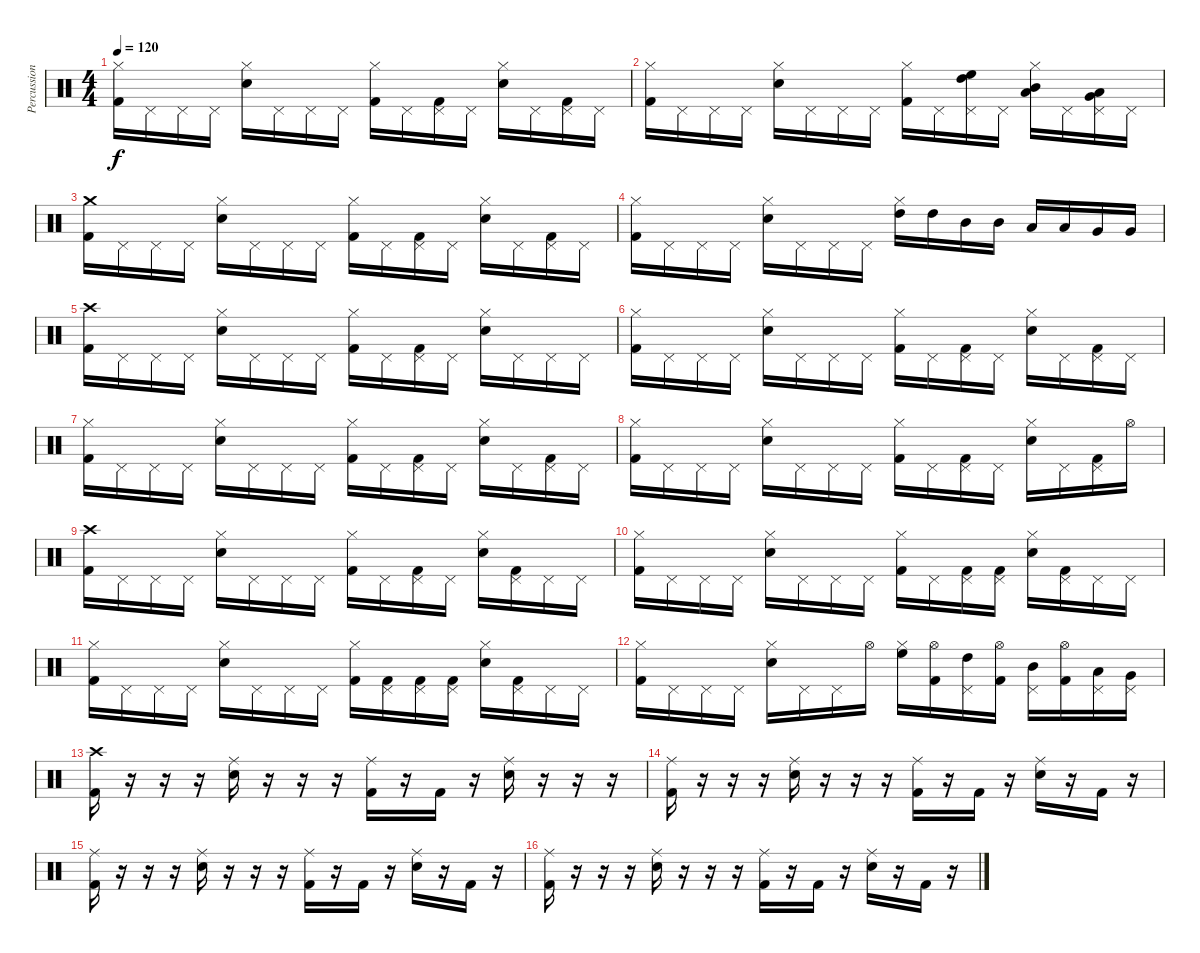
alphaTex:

\track ("Percussion" "Percussion") {instrument percussion}
\staff {score}
\articulation defaults
\ts (4 4)
\tempo 120
\clef neutral
\ks c
("Hi-Hat (closed)" "Kick (hit) 2").16{dy f} "Pedal Hi-Hat (hit)".16 "Pedal Hi-Hat (hit)".16 "Pedal Hi-Hat (hit)".16 ("Hi-Hat (closed)" "Electric Snare (hit)").16 "Pedal Hi-Hat (hit)".16 "Pedal Hi-Hat (hit)".16 "Pedal Hi-Hat (hit)".16 ("Hi-Hat (closed)" "Kick (hit) 2").16 "Pedal Hi-Hat (hit)".16 ("Pedal Hi-Hat (hit)" "Kick (hit) 2").16 "Pedal Hi-Hat (hit)".16 ("Hi-Hat (closed)" "Electric Snare (hit)").16 "Pedal Hi-Hat (hit)".16 ("Pedal Hi-Hat (hit)" "Kick (hit) 2").16 "Pedal Hi-Hat (hit)".16 |
("Hi-Hat (closed)" "Kick (hit) 2").16 "Pedal Hi-Hat (hit)".16 "Pedal Hi-Hat (hit)".16 "Pedal Hi-Hat (hit)".16 ("Hi-Hat (closed)" "Electric Snare (hit)").16 "Pedal Hi-Hat (hit)".16 "Pedal Hi-Hat (hit)".16 "Pedal Hi-Hat (hit)".16 ("Hi-Hat (closed)" "Kick (hit) 2").16 "Pedal Hi-Hat (hit)".16 ("Pedal Hi-Hat (hit)" "High Floor Tom (hit)" "High Tom (hit)").16 "Pedal Hi-Hat (hit)".16 ("Hi-Hat (closed)" "Mid Tom (hit)" "Low Tom (hit)").16 "Pedal Hi-Hat (hit)".16 ("Pedal Hi-Hat (hit)" "Very Low Tom (hit)" "Low Floor Tom (hit)").16 "Pedal Hi-Hat (hit)".16 |
("Crash medium (hit)" "Kick (hit) 2").16 "Pedal Hi-Hat (hit)".16 "Pedal Hi-Hat (hit)".16 "Pedal Hi-Hat (hit)".16 ("Hi-Hat (closed)" "Electric Snare (hit)").16 "Pedal Hi-Hat (hit)".16 "Pedal Hi-Hat (hit)".16 "Pedal Hi-Hat (hit)".16 ("Hi-Hat (closed)" "Kick (hit) 2").16 "Pedal Hi-Hat (hit)".16 ("Pedal Hi-Hat (hit)" "Kick (hit) 2").16 "Pedal Hi-Hat (hit)".16 ("Hi-Hat (closed)" "Electric Snare (hit)").16 "Pedal Hi-Hat (hit)".16 ("Pedal Hi-Hat (hit)" "Kick (hit) 2").16 "Pedal Hi-Hat (hit)".16 |
("Hi-Hat (closed)" "Kick (hit) 2").16 "Pedal Hi-Hat (hit)".16 "Pedal Hi-Hat (hit)".16 "Pedal Hi-Hat (hit)".16 ("Hi-Hat (closed)" "Electric Snare (hit)").16 "Pedal Hi-Hat (hit)".16 "Pedal Hi-Hat (hit)".16 "Pedal Hi-Hat (hit)".16 ("Hi-Hat (closed)" "High Tom (hit)").16 "High Tom (hit)".16 "Mid Tom (hit)".16 "Mid Tom (hit)".16 "Low Tom (hit)".16 "Low Tom (hit)".16 "Very Low Tom (hit)".16 "Very Low Tom (hit)".16 |
("Crash high (hit)" "Kick (hit) 2").16 "Pedal Hi-Hat (hit)".16 "Pedal Hi-Hat (hit)".16 "Pedal Hi-Hat (hit)".16 ("Hi-Hat (closed)" "Electric Snare (hit)").16 "Pedal Hi-Hat (hit)".16 "Pedal Hi-Hat (hit)".16 "Pedal Hi-Hat (hit)".16 ("Hi-Hat (closed)" "Kick (hit) 2").16 "Pedal Hi-Hat (hit)".16 ("Pedal Hi-Hat (hit)" "Kick (hit) 2").16 "Pedal Hi-Hat (hit)".16 ("Hi-Hat (closed)" "Electric Snare (hit)").16 "Pedal Hi-Hat (hit)".16 "Pedal Hi-Hat (hit)".16 "Pedal Hi-Hat (hit)".16 |
("Hi-Hat (closed)" "Kick (hit) 2").16 "Pedal Hi-Hat (hit)".16 "Pedal Hi-Hat (hit)".16 "Pedal Hi-Hat (hit)".16 ("Hi-Hat (closed)" "Electric Snare (hit)").16 "Pedal Hi-Hat (hit)".16 "Pedal Hi-Hat (hit)".16 "Pedal Hi-Hat (hit)".16 ("Hi-Hat (closed)" "Kick (hit) 2").16 "Pedal Hi-Hat (hit)".16 ("Pedal Hi-Hat (hit)" "Kick (hit) 2").16 "Pedal Hi-Hat (hit)".16 ("Hi-Hat (closed)" "Electric Snare (hit)").16 "Pedal Hi-Hat (hit)".16 ("Pedal Hi-Hat (hit)" "Kick (hit) 2").16 "Pedal Hi-Hat (hit)".16 |
("Hi-Hat (closed)" "Kick (hit) 2").16 "Pedal Hi-Hat (hit)".16 "Pedal Hi-Hat (hit)".16 "Pedal Hi-Hat (hit)".16 ("Hi-Hat (closed)" "Electric Snare (hit)").16 "Pedal Hi-Hat (hit)".16 "Pedal Hi-Hat (hit)".16 "Pedal Hi-Hat (hit)".16 ("Hi-Hat (closed)" "Kick (hit) 2").16 "Pedal Hi-Hat (hit)".16 ("Pedal Hi-Hat (hit)" "Kick (hit) 2").16 "Pedal Hi-Hat (hit)".16 ("Hi-Hat (closed)" "Electric Snare (hit)").16 "Pedal Hi-Hat (hit)".16 ("Pedal Hi-Hat (hit)" "Kick (hit) 2").16 "Pedal Hi-Hat (hit)".16 |
("Hi-Hat (closed)" "Kick (hit) 2").16 "Pedal Hi-Hat (hit)".16 "Pedal Hi-Hat (hit)".16 "Pedal Hi-Hat (hit)".16 ("Hi-Hat (closed)" "Electric Snare (hit)").16 "Pedal Hi-Hat (hit)".16 "Pedal Hi-Hat (hit)".16 "Pedal Hi-Hat (hit)".16 ("Hi-Hat (closed)" "Kick (hit) 2").16 "Pedal Hi-Hat (hit)".16 ("Pedal Hi-Hat (hit)" "Kick (hit) 2").16 "Pedal Hi-Hat (hit)".16 ("Hi-Hat (closed)" "Electric Snare (hit)").16 "Pedal Hi-Hat (hit)".16 ("Pedal Hi-Hat (hit)" "Kick (hit) 2").16 "Hi-Hat (open)".16 |
("Crash high (hit)" "Kick (hit) 2").16 "Pedal Hi-Hat (hit)".16 "Pedal Hi-Hat (hit)".16 "Pedal Hi-Hat (hit)".16 ("Hi-Hat (closed)" "Electric Snare (hit)").16 "Pedal Hi-Hat (hit)".16 "Pedal Hi-Hat (hit)".16 "Pedal Hi-Hat (hit)".16 ("Hi-Hat (closed)" "Kick (hit) 2").16 "Pedal Hi-Hat (hit)".16 ("Pedal Hi-Hat (hit)" "Kick (hit) 2").16 "Pedal Hi-Hat (hit)".16 ("Hi-Hat (closed)" "Electric Snare (hit)").16 ("Pedal Hi-Hat (hit)" "Kick (hit) 2").16 "Pedal Hi-Hat (hit)".16 "Pedal Hi-Hat (hit)".16 |
("Hi-Hat (closed)" "Kick (hit) 2").16 "Pedal Hi-Hat (hit)".16 "Pedal Hi-Hat (hit)".16 "Pedal Hi-Hat (hit)".16 ("Hi-Hat (closed)" "Electric Snare (hit)").16 "Pedal Hi-Hat (hit)".16 "Pedal Hi-Hat (hit)".16 "Pedal Hi-Hat (hit)".16 ("Hi-Hat (closed)" "Kick (hit) 2").16 "Pedal Hi-Hat (hit)".16 ("Pedal Hi-Hat (hit)" "Kick (hit) 2").16 ("Pedal Hi-Hat (hit)" "Kick (hit) 2").16 ("Hi-Hat (closed)" "Electric Snare (hit)").16 ("Pedal Hi-Hat (hit)" "Kick (hit) 2").16 "Pedal Hi-Hat (hit)".16 "Pedal Hi-Hat (hit)".16 |
("Hi-Hat (closed)" "Kick (hit) 2").16 "Pedal Hi-Hat (hit)".16 "Pedal Hi-Hat (hit)".16 "Pedal Hi-Hat (hit)".16 ("Hi-Hat (closed)" "Electric Snare (hit)").16 "Pedal Hi-Hat (hit)".16 "Pedal Hi-Hat (hit)".16 "Pedal Hi-Hat (hit)".16 ("Hi-Hat (closed)" "Kick (hit) 2").16 ("Pedal Hi-Hat (hit)" "Kick (hit) 2").16 ("Pedal Hi-Hat (hit)" "Kick (hit) 2").16 ("Pedal Hi-Hat (hit)" "Kick (hit) 2").16 ("Hi-Hat (closed)" "Electric Snare (hit)").16 ("Pedal Hi-Hat (hit)" "Kick (hit) 2").16 "Pedal Hi-Hat (hit)".16 "Pedal Hi-Hat (hit)".16 |
("Hi-Hat (closed)" "Kick (hit) 2").16 "Pedal Hi-Hat (hit)".16 "Pedal Hi-Hat (hit)".16 "Pedal Hi-Hat (hit)".16 ("Hi-Hat (closed)" "Electric Snare (hit)").16 "Pedal Hi-Hat (hit)".16 "Pedal Hi-Hat (hit)".16 "Hi-Hat (open)".16 ("Hi-Hat (closed)" "High Floor Tom (hit)").16 ("Hi-Hat (open)" "Kick (hit) 2").16 ("Pedal Hi-Hat (hit)" "High Tom (hit)").16 ("Hi-Hat (open)" "Kick (hit) 2").16 ("Pedal Hi-Hat (hit)" "Mid Tom (hit)").16 ("Hi-Hat (open)" "Kick (hit) 2").16 ("Pedal Hi-Hat (hit)" "Low Tom (hit)").16 ("Pedal Hi-Hat (hit)" "Very Low Tom (hit)").16 |
("Crash high (hit)" "Kick (hit) 2").16 r.16 r.16 r.16 ("Ride (middle)" "Electric Snare (hit)").16 r.16 r.16 r.16 ("Ride (middle)" "Kick (hit) 2").16 r.16 "Kick (hit) 2".16 r.16 ("Ride (middle)" "Electric Snare (hit)").16 r.16 r.16 r.16 |
("Ride (middle)" "Kick (hit) 2").16 r.16 r.16 r.16 ("Ride (middle)" "Electric Snare (hit)").16 r.16 r.16 r.16 ("Ride (middle)" "Kick (hit) 2").16 r.16 "Kick (hit) 2".16 r.16 ("Ride (middle)" "Electric Snare (hit)").16 r.16 "Kick (hit) 2".16 r.16 |
("Ride (middle)" "Kick (hit) 2").16 r.16 r.16 r.16 ("Ride (middle)" "Electric Snare (hit)").16 r.16 r.16 r.16 ("Ride (middle)" "Kick (hit) 2").16 r.16 "Kick (hit) 2".16 r.16 ("Ride (middle)" "Electric Snare (hit)").16 r.16 "Kick (hit) 2".16 r.16 |
("Ride (middle)" "Kick (hit) 2").16 r.16 r.16 r.16 ("Ride (middle)" "Electric Snare (hit)").16 r.16 r.16 r.16 ("Ride (middle)" "Kick (hit) 2").16 r.16 "Kick (hit) 2".16 r.16 ("Ride (middle)" "Electric Snare (hit)").16 r.16 "Kick (hit) 2".16 r.16
